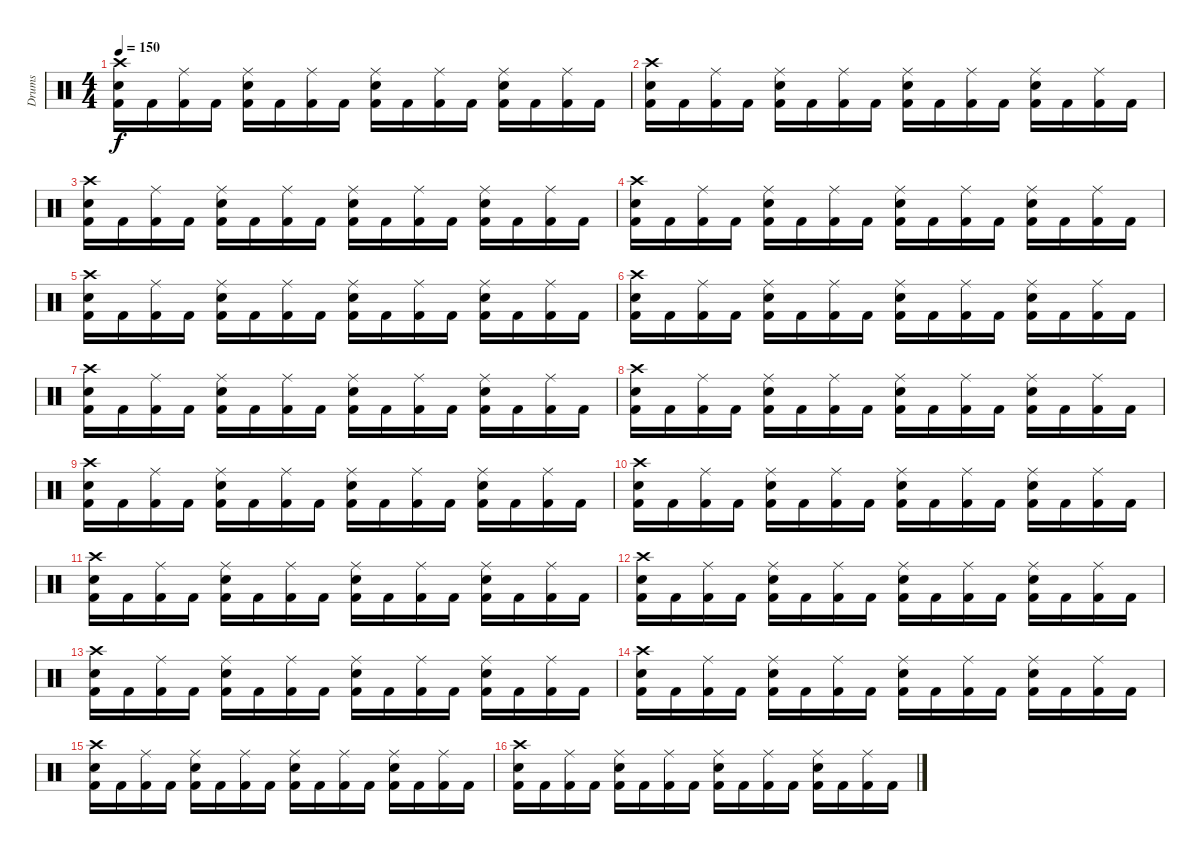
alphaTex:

\track ("Drums" "Drums") {instrument percussion}
\staff {score}
\articulation defaults
\ts (4 4)
\tempo 150
\clef neutral
\ks c
("Kick (hit) 2" "Snare (hit) 2" "Crash high (hit)").16{dy f} "Kick (hit) 2".16 ("Kick (hit) 2" "Ride (middle)").16 "Kick (hit) 2".16 ("Kick (hit) 2" "Snare (hit) 2" "Ride (middle)").16 "Kick (hit) 2".16 ("Kick (hit) 2" "Ride (middle)").16 "Kick (hit) 2".16 ("Kick (hit) 2" "Snare (hit) 2" "Ride (middle)").16 "Kick (hit) 2".16 ("Kick (hit) 2" "Ride (middle)").16 "Kick (hit) 2".16 ("Kick (hit) 2" "Snare (hit) 2" "Ride (middle)").16 "Kick (hit) 2".16 ("Kick (hit) 2" "Ride (middle)").16 "Kick (hit) 2".16 |
("Kick (hit) 2" "Snare (hit) 2" "Crash high (hit)").16 "Kick (hit) 2".16 ("Kick (hit) 2" "Ride (middle)").16 "Kick (hit) 2".16 ("Kick (hit) 2" "Snare (hit) 2" "Ride (middle)").16 "Kick (hit) 2".16 ("Kick (hit) 2" "Ride (middle)").16 "Kick (hit) 2".16 ("Kick (hit) 2" "Snare (hit) 2" "Ride (middle)").16 "Kick (hit) 2".16 ("Kick (hit) 2" "Ride (middle)").16 "Kick (hit) 2".16 ("Kick (hit) 2" "Snare (hit) 2" "Ride (middle)").16 "Kick (hit) 2".16 ("Kick (hit) 2" "Ride (middle)").16 "Kick (hit) 2".16 |
("Kick (hit) 2" "Snare (hit) 2" "Crash high (hit)").16 "Kick (hit) 2".16 ("Kick (hit) 2" "Ride (middle)").16 "Kick (hit) 2".16 ("Kick (hit) 2" "Snare (hit) 2" "Ride (middle)").16 "Kick (hit) 2".16 ("Kick (hit) 2" "Ride (middle)").16 "Kick (hit) 2".16 ("Kick (hit) 2" "Snare (hit) 2" "Ride (middle)").16 "Kick (hit) 2".16 ("Kick (hit) 2" "Ride (middle)").16 "Kick (hit) 2".16 ("Kick (hit) 2" "Snare (hit) 2" "Ride (middle)").16 "Kick (hit) 2".16 ("Kick (hit) 2" "Ride (middle)").16 "Kick (hit) 2".16 |
("Kick (hit) 2" "Snare (hit) 2" "Crash high (hit)").16 "Kick (hit) 2".16 ("Kick (hit) 2" "Ride (middle)").16 "Kick (hit) 2".16 ("Kick (hit) 2" "Snare (hit) 2" "Ride (middle)").16 "Kick (hit) 2".16 ("Kick (hit) 2" "Ride (middle)").16 "Kick (hit) 2".16 ("Kick (hit) 2" "Snare (hit) 2" "Ride (middle)").16 "Kick (hit) 2".16 ("Kick (hit) 2" "Ride (middle)").16 "Kick (hit) 2".16 ("Kick (hit) 2" "Snare (hit) 2" "Ride (middle)").16 "Kick (hit) 2".16 ("Kick (hit) 2" "Ride (middle)").16 "Kick (hit) 2".16 |
("Kick (hit) 2" "Snare (hit) 2" "Crash high (hit)").16 "Kick (hit) 2".16 ("Kick (hit) 2" "Ride (middle)").16 "Kick (hit) 2".16 ("Kick (hit) 2" "Snare (hit) 2" "Ride (middle)").16 "Kick (hit) 2".16 ("Kick (hit) 2" "Ride (middle)").16 "Kick (hit) 2".16 ("Kick (hit) 2" "Snare (hit) 2" "Ride (middle)").16 "Kick (hit) 2".16 ("Kick (hit) 2" "Ride (middle)").16 "Kick (hit) 2".16 ("Kick (hit) 2" "Snare (hit) 2" "Ride (middle)").16 "Kick (hit) 2".16 ("Kick (hit) 2" "Ride (middle)").16 "Kick (hit) 2".16 |
("Kick (hit) 2" "Snare (hit) 2" "Crash high (hit)").16 "Kick (hit) 2".16 ("Kick (hit) 2" "Ride (middle)").16 "Kick (hit) 2".16 ("Kick (hit) 2" "Snare (hit) 2" "Ride (middle)").16 "Kick (hit) 2".16 ("Kick (hit) 2" "Ride (middle)").16 "Kick (hit) 2".16 ("Kick (hit) 2" "Snare (hit) 2" "Ride (middle)").16 "Kick (hit) 2".16 ("Kick (hit) 2" "Ride (middle)").16 "Kick (hit) 2".16 ("Kick (hit) 2" "Snare (hit) 2" "Ride (middle)").16 "Kick (hit) 2".16 ("Kick (hit) 2" "Ride (middle)").16 "Kick (hit) 2".16 |
("Kick (hit) 2" "Snare (hit) 2" "Crash high (hit)").16 "Kick (hit) 2".16 ("Kick (hit) 2" "Ride (middle)").16 "Kick (hit) 2".16 ("Kick (hit) 2" "Snare (hit) 2" "Ride (middle)").16 "Kick (hit) 2".16 ("Kick (hit) 2" "Ride (middle)").16 "Kick (hit) 2".16 ("Kick (hit) 2" "Snare (hit) 2" "Ride (middle)").16 "Kick (hit) 2".16 ("Kick (hit) 2" "Ride (middle)").16 "Kick (hit) 2".16 ("Kick (hit) 2" "Snare (hit) 2" "Ride (middle)").16 "Kick (hit) 2".16 ("Kick (hit) 2" "Ride (middle)").16 "Kick (hit) 2".16 |
("Kick (hit) 2" "Snare (hit) 2" "Crash high (hit)").16 "Kick (hit) 2".16 ("Kick (hit) 2" "Ride (middle)").16 "Kick (hit) 2".16 ("Kick (hit) 2" "Snare (hit) 2" "Ride (middle)").16 "Kick (hit) 2".16 ("Kick (hit) 2" "Ride (middle)").16 "Kick (hit) 2".16 ("Kick (hit) 2" "Snare (hit) 2" "Ride (middle)").16 "Kick (hit) 2".16 ("Kick (hit) 2" "Ride (middle)").16 "Kick (hit) 2".16 ("Kick (hit) 2" "Snare (hit) 2" "Ride (middle)").16 "Kick (hit) 2".16 ("Kick (hit) 2" "Ride (middle)").16 "Kick (hit) 2".16 |
("Kick (hit) 2" "Snare (hit) 2" "Crash high (hit)").16 "Kick (hit) 2".16 ("Kick (hit) 2" "Ride (middle)").16 "Kick (hit) 2".16 ("Kick (hit) 2" "Snare (hit) 2" "Ride (middle)").16 "Kick (hit) 2".16 ("Kick (hit) 2" "Ride (middle)").16 "Kick (hit) 2".16 ("Kick (hit) 2" "Snare (hit) 2" "Ride (middle)").16 "Kick (hit) 2".16 ("Kick (hit) 2" "Ride (middle)").16 "Kick (hit) 2".16 ("Kick (hit) 2" "Snare (hit) 2" "Ride (middle)").16 "Kick (hit) 2".16 ("Kick (hit) 2" "Ride (middle)").16 "Kick (hit) 2".16 |
("Kick (hit) 2" "Snare (hit) 2" "Crash high (hit)").16 "Kick (hit) 2".16 ("Kick (hit) 2" "Ride (middle)").16 "Kick (hit) 2".16 ("Kick (hit) 2" "Snare (hit) 2" "Ride (middle)").16 "Kick (hit) 2".16 ("Kick (hit) 2" "Ride (middle)").16 "Kick (hit) 2".16 ("Kick (hit) 2" "Snare (hit) 2" "Ride (middle)").16 "Kick (hit) 2".16 ("Kick (hit) 2" "Ride (middle)").16 "Kick (hit) 2".16 ("Kick (hit) 2" "Snare (hit) 2" "Ride (middle)").16 "Kick (hit) 2".16 ("Kick (hit) 2" "Ride (middle)").16 "Kick (hit) 2".16 |
("Kick (hit) 2" "Snare (hit) 2" "Crash high (hit)").16 "Kick (hit) 2".16 ("Kick (hit) 2" "Ride (middle)").16 "Kick (hit) 2".16 ("Kick (hit) 2" "Snare (hit) 2" "Ride (middle)").16 "Kick (hit) 2".16 ("Kick (hit) 2" "Ride (middle)").16 "Kick (hit) 2".16 ("Kick (hit) 2" "Snare (hit) 2" "Ride (middle)").16 "Kick (hit) 2".16 ("Kick (hit) 2" "Ride (middle)").16 "Kick (hit) 2".16 ("Kick (hit) 2" "Snare (hit) 2" "Ride (middle)").16 "Kick (hit) 2".16 ("Kick (hit) 2" "Ride (middle)").16 "Kick (hit) 2".16 |
("Kick (hit) 2" "Snare (hit) 2" "Crash high (hit)").16 "Kick (hit) 2".16 ("Kick (hit) 2" "Ride (middle)").16 "Kick (hit) 2".16 ("Kick (hit) 2" "Snare (hit) 2" "Ride (middle)").16 "Kick (hit) 2".16 ("Kick (hit) 2" "Ride (middle)").16 "Kick (hit) 2".16 ("Kick (hit) 2" "Snare (hit) 2" "Ride (middle)").16 "Kick (hit) 2".16 ("Kick (hit) 2" "Ride (middle)").16 "Kick (hit) 2".16 ("Kick (hit) 2" "Snare (hit) 2" "Ride (middle)").16 "Kick (hit) 2".16 ("Kick (hit) 2" "Ride (middle)").16 "Kick (hit) 2".16 |
("Kick (hit) 2" "Snare (hit) 2" "Crash high (hit)").16 "Kick (hit) 2".16 ("Kick (hit) 2" "Ride (middle)").16 "Kick (hit) 2".16 ("Kick (hit) 2" "Snare (hit) 2" "Ride (middle)").16 "Kick (hit) 2".16 ("Kick (hit) 2" "Ride (middle)").16 "Kick (hit) 2".16 ("Kick (hit) 2" "Snare (hit) 2" "Ride (middle)").16 "Kick (hit) 2".16 ("Kick (hit) 2" "Ride (middle)").16 "Kick (hit) 2".16 ("Kick (hit) 2" "Snare (hit) 2" "Ride (middle)").16 "Kick (hit) 2".16 ("Kick (hit) 2" "Ride (middle)").16 "Kick (hit) 2".16 |
("Kick (hit) 2" "Snare (hit) 2" "Crash high (hit)").16 "Kick (hit) 2".16 ("Kick (hit) 2" "Ride (middle)").16 "Kick (hit) 2".16 ("Kick (hit) 2" "Snare (hit) 2" "Ride (middle)").16 "Kick (hit) 2".16 ("Kick (hit) 2" "Ride (middle)").16 "Kick (hit) 2".16 ("Kick (hit) 2" "Snare (hit) 2" "Ride (middle)").16 "Kick (hit) 2".16 ("Kick (hit) 2" "Ride (middle)").16 "Kick (hit) 2".16 ("Kick (hit) 2" "Snare (hit) 2" "Ride (middle)").16 "Kick (hit) 2".16 ("Kick (hit) 2" "Ride (middle)").16 "Kick (hit) 2".16 |
("Kick (hit) 2" "Snare (hit) 2" "Crash high (hit)").16 "Kick (hit) 2".16 ("Kick (hit) 2" "Ride (middle)").16 "Kick (hit) 2".16 ("Kick (hit) 2" "Snare (hit) 2" "Ride (middle)").16 "Kick (hit) 2".16 ("Kick (hit) 2" "Ride (middle)").16 "Kick (hit) 2".16 ("Kick (hit) 2" "Snare (hit) 2" "Ride (middle)").16 "Kick (hit) 2".16 ("Kick (hit) 2" "Ride (middle)").16 "Kick (hit) 2".16 ("Kick (hit) 2" "Snare (hit) 2" "Ride (middle)").16 "Kick (hit) 2".16 ("Kick (hit) 2" "Ride (middle)").16 "Kick (hit) 2".16 |
("Kick (hit) 2" "Snare (hit) 2" "Crash high (hit)").16 "Kick (hit) 2".16 ("Kick (hit) 2" "Ride (middle)").16 "Kick (hit) 2".16 ("Kick (hit) 2" "Snare (hit) 2" "Ride (middle)").16 "Kick (hit) 2".16 ("Kick (hit) 2" "Ride (middle)").16 "Kick (hit) 2".16 ("Kick (hit) 2" "Snare (hit) 2" "Ride (middle)").16 "Kick (hit) 2".16 ("Kick (hit) 2" "Ride (middle)").16 "Kick (hit) 2".16 ("Kick (hit) 2" "Snare (hit) 2" "Ride (middle)").16 "Kick (hit) 2".16 ("Kick (hit) 2" "Ride (middle)").16 "Kick (hit) 2".16
